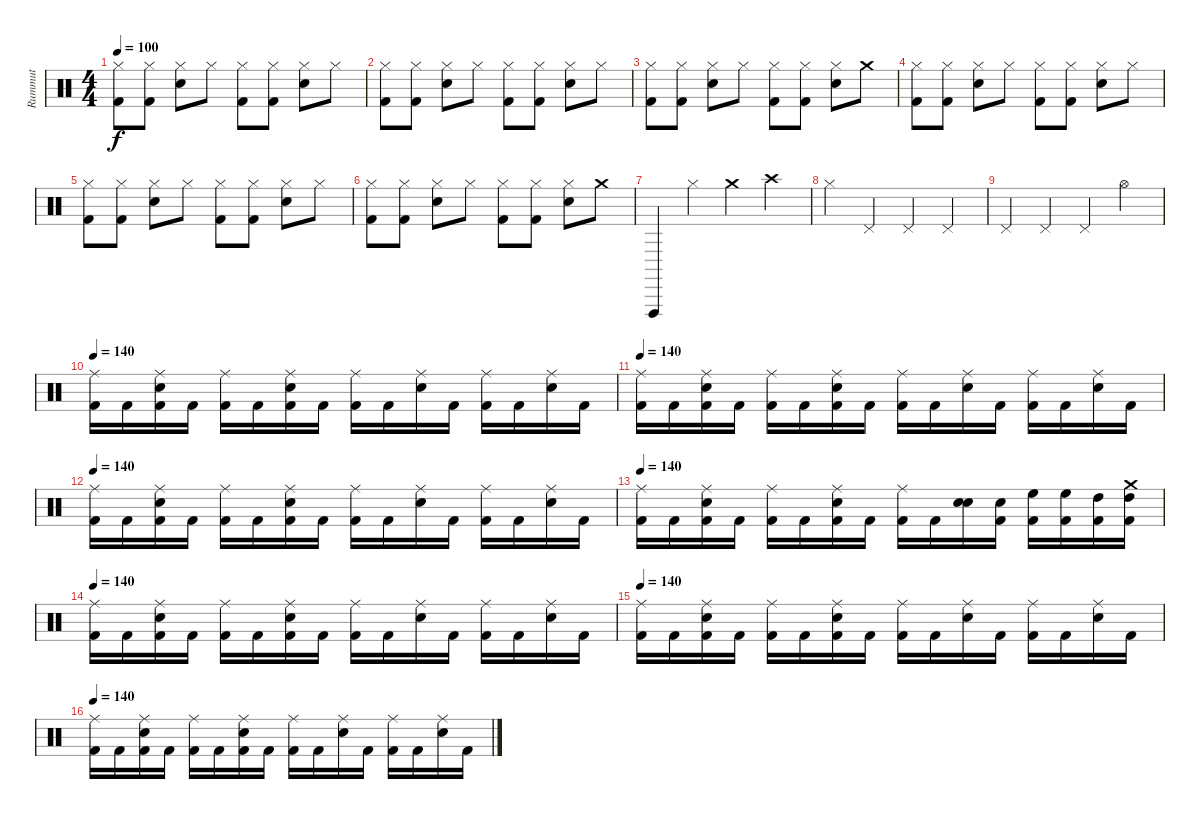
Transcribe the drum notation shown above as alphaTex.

\track ("Rummut" "Rummut") {instrument percussion}
\staff {score}
\articulation defaults
\ts (4 4)
\tempo 100
\clef neutral
\ks c
("Hi-Hat (closed)" "Kick (hit) 2").8{dy f} ("Hi-Hat (closed)" "Kick (hit) 2").8 ("Hi-Hat (closed)" "Snare (hit) 2").8 "Hi-Hat (closed)".8 ("Hi-Hat (closed)" "Kick (hit) 2").8 ("Hi-Hat (closed)" "Kick (hit) 2").8 ("Hi-Hat (closed)" "Snare (hit) 2").8 "Hi-Hat (closed)".8 |
("Hi-Hat (closed)" "Kick (hit) 2").8 ("Hi-Hat (closed)" "Kick (hit) 2").8 ("Hi-Hat (closed)" "Snare (hit) 2").8 "Hi-Hat (closed)".8 ("Hi-Hat (closed)" "Kick (hit) 2").8 ("Hi-Hat (closed)" "Kick (hit) 2").8 ("Hi-Hat (closed)" "Snare (hit) 2").8 "Hi-Hat (closed)".8 |
("Hi-Hat (closed)" "Kick (hit) 2").8 ("Hi-Hat (closed)" "Kick (hit) 2").8 ("Hi-Hat (closed)" "Snare (hit) 2").8 "Hi-Hat (closed)".8 ("Hi-Hat (closed)" "Kick (hit) 2").8 ("Hi-Hat (closed)" "Kick (hit) 2").8 ("Hi-Hat (closed)" "Snare (hit) 2").8 "Crash medium (hit)".8 |
("Hi-Hat (closed)" "Kick (hit) 2").8 ("Hi-Hat (closed)" "Kick (hit) 2").8 ("Hi-Hat (closed)" "Snare (hit) 2").8 "Hi-Hat (closed)".8 ("Hi-Hat (closed)" "Kick (hit) 2").8 ("Hi-Hat (closed)" "Kick (hit) 2").8 ("Hi-Hat (closed)" "Snare (hit) 2").8 "Hi-Hat (closed)".8 |
("Hi-Hat (closed)" "Kick (hit) 2").8 ("Hi-Hat (closed)" "Kick (hit) 2").8 ("Hi-Hat (closed)" "Snare (hit) 2").8 "Hi-Hat (closed)".8 ("Hi-Hat (closed)" "Kick (hit) 2").8 ("Hi-Hat (closed)" "Kick (hit) 2").8 ("Hi-Hat (closed)" "Snare (hit) 2").8 "Hi-Hat (closed)".8 |
("Hi-Hat (closed)" "Kick (hit) 2").8 ("Hi-Hat (closed)" "Kick (hit) 2").8 ("Hi-Hat (closed)" "Snare (hit) 2").8 "Hi-Hat (closed)".8 ("Hi-Hat (closed)" "Kick (hit) 2").8 ("Hi-Hat (closed)" "Kick (hit) 2").8 ("Hi-Hat (closed)" "Snare (hit) 2").8 "Crash medium (hit)".8 |
"Vibraslap (hit)".4 "Hi-Hat (closed)".4 "Crash medium (hit)".4 "Crash high (hit)".4 |
"Hi-Hat (closed)".4 "Pedal Hi-Hat (hit)".4 "Pedal Hi-Hat (hit)".4 "Pedal Hi-Hat (hit)".4 |
"Pedal Hi-Hat (hit)".4 "Pedal Hi-Hat (hit)".4 "Pedal Hi-Hat (hit)".4 "Hi-Hat (open)".4 |
\tempo 140
("Ride (middle)" "Kick (hit) 2").16 "Kick (hit) 2".16 ("Ride (middle)" "Snare (hit) 2" "Kick (hit) 2").16 "Kick (hit) 2".16 ("Ride (middle)" "Kick (hit) 2").16 "Kick (hit) 2".16 ("Ride (middle)" "Snare (hit) 2" "Kick (hit) 2").16 "Kick (hit) 2".16 ("Ride (middle)" "Kick (hit) 2").16 "Kick (hit) 2".16 ("Ride (middle)" "Snare (hit) 2").16 "Kick (hit) 2".16 ("Ride (middle)" "Kick (hit) 2").16 "Kick (hit) 2".16 ("Ride (middle)" "Snare (hit) 2").16 "Kick (hit) 2".16 |
\tempo 140
("Ride (middle)" "Kick (hit) 2").16 "Kick (hit) 2".16 ("Ride (middle)" "Snare (hit) 2" "Kick (hit) 2").16 "Kick (hit) 2".16 ("Ride (middle)" "Kick (hit) 2").16 "Kick (hit) 2".16 ("Ride (middle)" "Snare (hit) 2" "Kick (hit) 2").16 "Kick (hit) 2".16 ("Ride (middle)" "Kick (hit) 2").16 "Kick (hit) 2".16 ("Ride (middle)" "Snare (hit) 2").16 "Kick (hit) 2".16 ("Ride (middle)" "Kick (hit) 2").16 "Kick (hit) 2".16 ("Ride (middle)" "Snare (hit) 2").16 "Kick (hit) 2".16 |
\tempo 140
("Ride (middle)" "Kick (hit) 2").16 "Kick (hit) 2".16 ("Ride (middle)" "Snare (hit) 2" "Kick (hit) 2").16 "Kick (hit) 2".16 ("Ride (middle)" "Kick (hit) 2").16 "Kick (hit) 2".16 ("Ride (middle)" "Snare (hit) 2" "Kick (hit) 2").16 "Kick (hit) 2".16 ("Ride (middle)" "Kick (hit) 2").16 "Kick (hit) 2".16 ("Ride (middle)" "Snare (hit) 2").16 "Kick (hit) 2".16 ("Ride (middle)" "Kick (hit) 2").16 "Kick (hit) 2".16 ("Ride (middle)" "Snare (hit) 2").16 "Kick (hit) 2".16 |
\tempo 140
("Ride (middle)" "Kick (hit) 2").16 "Kick (hit) 2".16 ("Ride (middle)" "Snare (hit) 2" "Kick (hit) 2").16 "Kick (hit) 2".16 ("Ride (middle)" "Kick (hit) 2").16 "Kick (hit) 2".16 ("Ride (middle)" "Snare (hit) 2" "Kick (hit) 2").16 "Kick (hit) 2".16 ("Ride (middle)" "Kick (hit) 2").16 "Kick (hit) 2".16 ("Snare (hit) 2" "Snare (hit) 2").16 ("Snare (hit) 2" "Kick (hit) 2").16 ("High Floor Tom (hit)" "Kick (hit) 2").16 ("High Floor Tom (hit)" "Kick (hit) 2").16 ("High Tom (hit)" "Kick (hit) 2").16 ("High Tom (hit)" "Kick (hit) 2" "Crash medium (hit)").16 |
\tempo 140
("Ride (middle)" "Kick (hit) 2").16 "Kick (hit) 2".16 ("Ride (middle)" "Snare (hit) 2" "Kick (hit) 2").16 "Kick (hit) 2".16 ("Ride (middle)" "Kick (hit) 2").16 "Kick (hit) 2".16 ("Ride (middle)" "Snare (hit) 2" "Kick (hit) 2").16 "Kick (hit) 2".16 ("Ride (middle)" "Kick (hit) 2").16 "Kick (hit) 2".16 ("Ride (middle)" "Snare (hit) 2").16 "Kick (hit) 2".16 ("Ride (middle)" "Kick (hit) 2").16 "Kick (hit) 2".16 ("Ride (middle)" "Snare (hit) 2").16 "Kick (hit) 2".16 |
\tempo 140
("Ride (middle)" "Kick (hit) 2").16 "Kick (hit) 2".16 ("Ride (middle)" "Snare (hit) 2" "Kick (hit) 2").16 "Kick (hit) 2".16 ("Ride (middle)" "Kick (hit) 2").16 "Kick (hit) 2".16 ("Ride (middle)" "Snare (hit) 2" "Kick (hit) 2").16 "Kick (hit) 2".16 ("Ride (middle)" "Kick (hit) 2").16 "Kick (hit) 2".16 ("Ride (middle)" "Snare (hit) 2").16 "Kick (hit) 2".16 ("Ride (middle)" "Kick (hit) 2").16 "Kick (hit) 2".16 ("Ride (middle)" "Snare (hit) 2").16 "Kick (hit) 2".16 |
\tempo 140
("Ride (middle)" "Kick (hit) 2").16 "Kick (hit) 2".16 ("Ride (middle)" "Snare (hit) 2" "Kick (hit) 2").16 "Kick (hit) 2".16 ("Ride (middle)" "Kick (hit) 2").16 "Kick (hit) 2".16 ("Ride (middle)" "Snare (hit) 2" "Kick (hit) 2").16 "Kick (hit) 2".16 ("Ride (middle)" "Kick (hit) 2").16 "Kick (hit) 2".16 ("Ride (middle)" "Snare (hit) 2").16 "Kick (hit) 2".16 ("Ride (middle)" "Kick (hit) 2").16 "Kick (hit) 2".16 ("Ride (middle)" "Snare (hit) 2").16 "Kick (hit) 2".16
